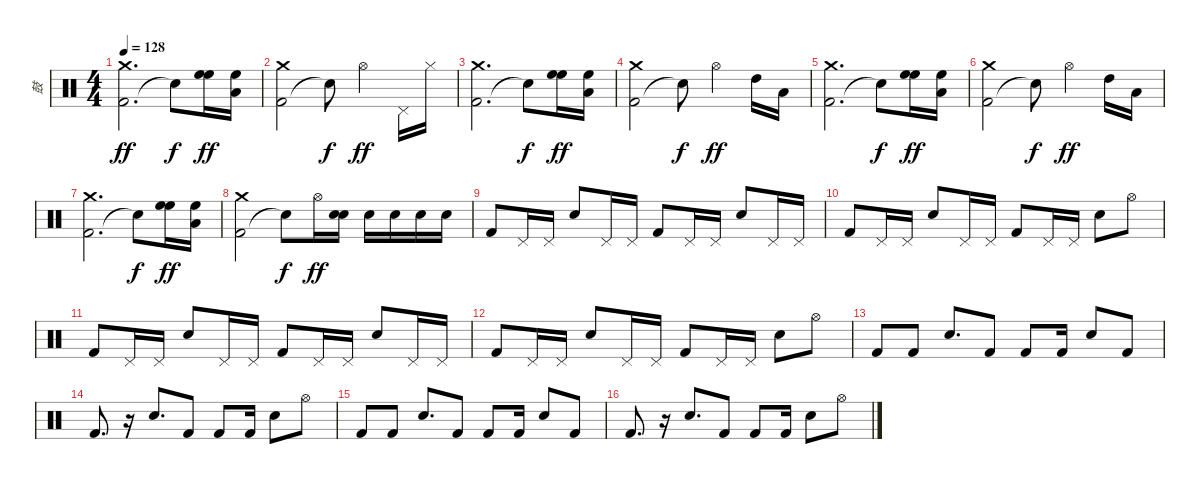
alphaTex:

\track ("鼓" "鼓") {instrument percussion}
\staff {score}
\articulation defaults
\ts (4 4)
\tempo 128
\clef neutral
\ks c
("Kick (hit) 2" "Crash medium (hit)").2{d dy ff} "Snare (hit)"{t}.8{dy f} ("High Floor Tom (hit)" "High Floor Tom (hit)").16{dy ff} ("High Floor Tom (hit)" "Low Tom (hit)").16 |
("Kick (hit) 2" "Crash medium (hit)").2 "Snare (hit)"{t}.8{dy f} "Hi-Hat (open)".4{dy ff} "Pedal Hi-Hat (hit)".16 "Hi-Hat (closed)".16 |
("Kick (hit) 2" "Crash medium (hit)").2{d} "Snare (hit)"{t}.8{dy f} ("High Floor Tom (hit)" "High Floor Tom (hit)").16{dy ff} ("High Floor Tom (hit)" "Low Tom (hit)").16 |
("Kick (hit) 2" "Crash medium (hit)").2 "Snare (hit)"{t}.8{dy f} "Hi-Hat (open)".4{dy ff} "High Tom (hit)".16 "Low Tom (hit)".16 |
("Kick (hit) 2" "Crash medium (hit)").2{d} "Snare (hit)"{t}.8{dy f} ("High Floor Tom (hit)" "High Floor Tom (hit)").16{dy ff} ("High Floor Tom (hit)" "Low Tom (hit)").16 |
("Kick (hit) 2" "Crash medium (hit)").2 "Snare (hit)"{t}.8{dy f} "Hi-Hat (open)".4{dy ff} "High Tom (hit)".16 "Low Tom (hit)".16 |
("Kick (hit) 2" "Crash medium (hit)").2{d} "Snare (hit)"{t}.8{dy f} ("High Floor Tom (hit)" "High Floor Tom (hit)").16{dy ff} ("High Floor Tom (hit)" "Low Tom (hit)").16 |
("Kick (hit) 2" "Crash medium (hit)").2 "Snare (hit)"{t}.8{dy f} "Hi-Hat (open)".16{dy ff} ("Snare (hit) 2" "Snare (hit) 2").16 "Snare (hit) 2".16 "Snare (hit) 2".16 "Snare (hit) 2".16 "Snare (hit) 2".16 |
"Kick (hit) 2".8 "Pedal Hi-Hat (hit)".16 "Pedal Hi-Hat (hit)".16 "Snare (hit) 2".8 "Pedal Hi-Hat (hit)".16 "Pedal Hi-Hat (hit)".16 "Kick (hit) 2".8 "Pedal Hi-Hat (hit)".16 "Pedal Hi-Hat (hit)".16 "Snare (hit) 2".8 "Pedal Hi-Hat (hit)".16 "Pedal Hi-Hat (hit)".16 |
"Kick (hit) 2".8 "Pedal Hi-Hat (hit)".16 "Pedal Hi-Hat (hit)".16 "Snare (hit) 2".8 "Pedal Hi-Hat (hit)".16 "Pedal Hi-Hat (hit)".16 "Kick (hit) 2".8 "Pedal Hi-Hat (hit)".16 "Pedal Hi-Hat (hit)".16 "Snare (hit) 2".8 "Hi-Hat (open)".8 |
"Kick (hit) 2".8 "Pedal Hi-Hat (hit)".16 "Pedal Hi-Hat (hit)".16 "Snare (hit) 2".8 "Pedal Hi-Hat (hit)".16 "Pedal Hi-Hat (hit)".16 "Kick (hit) 2".8 "Pedal Hi-Hat (hit)".16 "Pedal Hi-Hat (hit)".16 "Snare (hit) 2".8 "Pedal Hi-Hat (hit)".16 "Pedal Hi-Hat (hit)".16 |
"Kick (hit) 2".8 "Pedal Hi-Hat (hit)".16 "Pedal Hi-Hat (hit)".16 "Snare (hit) 2".8 "Pedal Hi-Hat (hit)".16 "Pedal Hi-Hat (hit)".16 "Kick (hit) 2".8 "Pedal Hi-Hat (hit)".16 "Pedal Hi-Hat (hit)".16 "Snare (hit) 2".8 "Hi-Hat (open)".8 |
"Kick (hit) 2".8 "Kick (hit) 2".8 "Snare (hit) 2".8{d} "Kick (hit) 2".8 "Kick (hit) 2".8 "Kick (hit) 2".16 "Snare (hit) 2".8 "Kick (hit) 2".8 |
"Kick (hit) 2".8{d} r.16 "Snare (hit) 2".8{d} "Kick (hit) 2".8 "Kick (hit) 2".8 "Kick (hit) 2".16 "Snare (hit) 2".8 "Hi-Hat (open)".8 |
"Kick (hit) 2".8 "Kick (hit) 2".8 "Snare (hit) 2".8{d} "Kick (hit) 2".8 "Kick (hit) 2".8 "Kick (hit) 2".16 "Snare (hit) 2".8 "Kick (hit) 2".8 |
"Kick (hit) 2".8{d} r.16 "Snare (hit) 2".8{d} "Kick (hit) 2".8 "Kick (hit) 2".8 "Kick (hit) 2".16 "Snare (hit) 2".8 "Hi-Hat (open)".8
